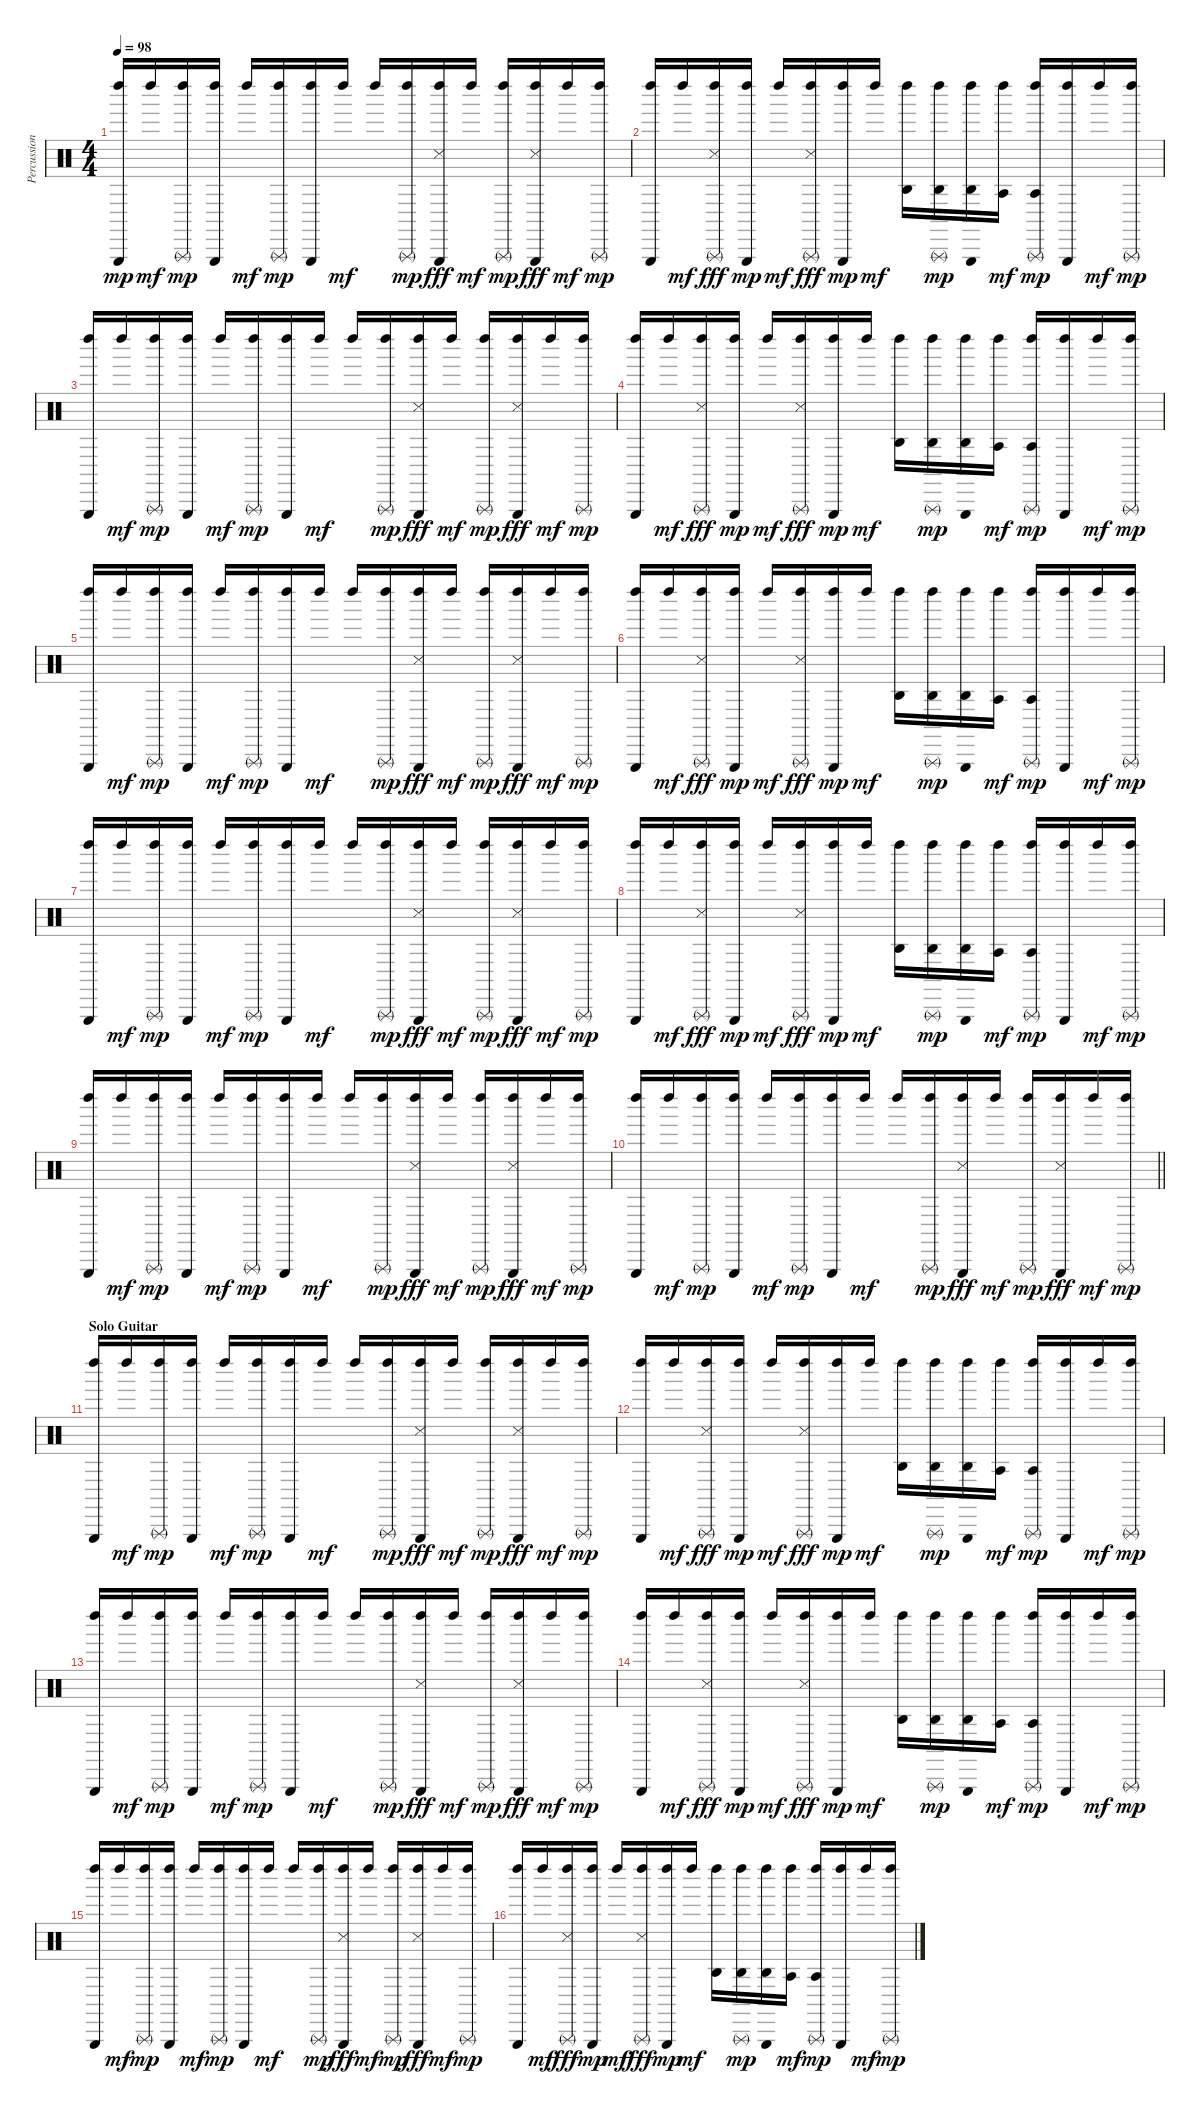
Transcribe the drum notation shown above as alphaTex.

\track ("Percussions (Dr-0)" "Percussion") {instrument percussion}
\staff {score}
\articulation defaults
\ts (4 4)
\tempo 98
\clef neutral
\ks c
("Left Maraca (hit)" "Triangle (hit)").16{dy mp} "Left Maraca (hit)".16{dy mf} ("Left Maraca (hit)" "Triangle (rnute)").16{dy mp} ("Left Maraca (hit)" "Triangle (hit)").16 "Left Maraca (hit)".16{dy mf} ("Left Maraca (hit)" "Triangle (rnute)").16{dy mp} ("Left Maraca (hit)" "Triangle (hit)").16 "Left Maraca (hit)".16{dy mf} "Left Maraca (hit)".16 ("Left Maraca (hit)" "Triangle (rnute)").16{dy mp} ("Left Maraca (hit)" "Triangle (hit)" "Snare (side stick) 3").16{dy fff} "Left Maraca (hit)".16{dy mf} ("Left Maraca (hit)" "Triangle (rnute)").16{dy mp} ("Left Maraca (hit)" "Triangle (hit)" "Snare (side stick) 3").16{dy fff} "Left Maraca (hit)".16{dy mf} ("Left Maraca (hit)" "Triangle (rnute)").16{dy mp} |
("Left Maraca (hit)" "Triangle (hit)").16 "Left Maraca (hit)".16{dy mf} ("Left Maraca (hit)" "Triangle (rnute)" "Snare (side stick) 3").16{dy fff} ("Left Maraca (hit)" "Triangle (hit)").16{dy mp} "Left Maraca (hit)".16{dy mf} ("Left Maraca (hit)" "Triangle (rnute)" "Snare (side stick) 3").16{dy fff} ("Left Maraca (hit)" "Triangle (hit)").16{dy mp} "Left Maraca (hit)".16{dy mf} ("Left Maraca (hit)" "Agogo high (hit)").16 ("Left Maraca (hit)" "Triangle (rnute)" "Agogo high (hit)").16{dy mp} ("Left Maraca (hit)" "Triangle (hit)" "Agogo high (hit)").16 ("Left Maraca (hit)" "Agogo tow (hit)").16{dy mf} ("Left Maraca (hit)" "Triangle (rnute)" "Agogo tow (hit)").16{dy mp} ("Left Maraca (hit)" "Triangle (hit)").16 "Left Maraca (hit)".16{dy mf} ("Left Maraca (hit)" "Triangle (rnute)").16{dy mp} |
("Left Maraca (hit)" "Triangle (hit)").16 "Left Maraca (hit)".16{dy mf} ("Left Maraca (hit)" "Triangle (rnute)").16{dy mp} ("Left Maraca (hit)" "Triangle (hit)").16 "Left Maraca (hit)".16{dy mf} ("Left Maraca (hit)" "Triangle (rnute)").16{dy mp} ("Left Maraca (hit)" "Triangle (hit)").16 "Left Maraca (hit)".16{dy mf} "Left Maraca (hit)".16 ("Left Maraca (hit)" "Triangle (rnute)").16{dy mp} ("Left Maraca (hit)" "Triangle (hit)" "Snare (side stick) 3").16{dy fff} "Left Maraca (hit)".16{dy mf} ("Left Maraca (hit)" "Triangle (rnute)").16{dy mp} ("Left Maraca (hit)" "Triangle (hit)" "Snare (side stick) 3").16{dy fff} "Left Maraca (hit)".16{dy mf} ("Left Maraca (hit)" "Triangle (rnute)").16{dy mp} |
("Left Maraca (hit)" "Triangle (hit)").16 "Left Maraca (hit)".16{dy mf} ("Left Maraca (hit)" "Triangle (rnute)" "Snare (side stick) 3").16{dy fff} ("Left Maraca (hit)" "Triangle (hit)").16{dy mp} "Left Maraca (hit)".16{dy mf} ("Left Maraca (hit)" "Triangle (rnute)" "Snare (side stick) 3").16{dy fff} ("Left Maraca (hit)" "Triangle (hit)").16{dy mp} "Left Maraca (hit)".16{dy mf} ("Left Maraca (hit)" "Agogo high (hit)").16 ("Left Maraca (hit)" "Triangle (rnute)" "Agogo high (hit)").16{dy mp} ("Left Maraca (hit)" "Triangle (hit)" "Agogo high (hit)").16 ("Left Maraca (hit)" "Agogo tow (hit)").16{dy mf} ("Left Maraca (hit)" "Triangle (rnute)" "Agogo tow (hit)").16{dy mp} ("Left Maraca (hit)" "Triangle (hit)").16 "Left Maraca (hit)".16{dy mf} ("Left Maraca (hit)" "Triangle (rnute)").16{dy mp} |
("Left Maraca (hit)" "Triangle (hit)").16 "Left Maraca (hit)".16{dy mf} ("Left Maraca (hit)" "Triangle (rnute)").16{dy mp} ("Left Maraca (hit)" "Triangle (hit)").16 "Left Maraca (hit)".16{dy mf} ("Left Maraca (hit)" "Triangle (rnute)").16{dy mp} ("Left Maraca (hit)" "Triangle (hit)").16 "Left Maraca (hit)".16{dy mf} "Left Maraca (hit)".16 ("Left Maraca (hit)" "Triangle (rnute)").16{dy mp} ("Left Maraca (hit)" "Triangle (hit)" "Snare (side stick) 3").16{dy fff} "Left Maraca (hit)".16{dy mf} ("Left Maraca (hit)" "Triangle (rnute)").16{dy mp} ("Left Maraca (hit)" "Triangle (hit)" "Snare (side stick) 3").16{dy fff} "Left Maraca (hit)".16{dy mf} ("Left Maraca (hit)" "Triangle (rnute)").16{dy mp} |
("Left Maraca (hit)" "Triangle (hit)").16 "Left Maraca (hit)".16{dy mf} ("Left Maraca (hit)" "Triangle (rnute)" "Snare (side stick) 3").16{dy fff} ("Left Maraca (hit)" "Triangle (hit)").16{dy mp} "Left Maraca (hit)".16{dy mf} ("Left Maraca (hit)" "Triangle (rnute)" "Snare (side stick) 3").16{dy fff} ("Left Maraca (hit)" "Triangle (hit)").16{dy mp} "Left Maraca (hit)".16{dy mf} ("Left Maraca (hit)" "Agogo high (hit)").16 ("Left Maraca (hit)" "Triangle (rnute)" "Agogo high (hit)").16{dy mp} ("Left Maraca (hit)" "Triangle (hit)" "Agogo high (hit)").16 ("Left Maraca (hit)" "Agogo tow (hit)").16{dy mf} ("Left Maraca (hit)" "Triangle (rnute)" "Agogo tow (hit)").16{dy mp} ("Left Maraca (hit)" "Triangle (hit)").16 "Left Maraca (hit)".16{dy mf} ("Left Maraca (hit)" "Triangle (rnute)").16{dy mp} |
("Left Maraca (hit)" "Triangle (hit)").16 "Left Maraca (hit)".16{dy mf} ("Left Maraca (hit)" "Triangle (rnute)").16{dy mp} ("Left Maraca (hit)" "Triangle (hit)").16 "Left Maraca (hit)".16{dy mf} ("Left Maraca (hit)" "Triangle (rnute)").16{dy mp} ("Left Maraca (hit)" "Triangle (hit)").16 "Left Maraca (hit)".16{dy mf} "Left Maraca (hit)".16 ("Left Maraca (hit)" "Triangle (rnute)").16{dy mp} ("Left Maraca (hit)" "Triangle (hit)" "Snare (side stick) 3").16{dy fff} "Left Maraca (hit)".16{dy mf} ("Left Maraca (hit)" "Triangle (rnute)").16{dy mp} ("Left Maraca (hit)" "Triangle (hit)" "Snare (side stick) 3").16{dy fff} "Left Maraca (hit)".16{dy mf} ("Left Maraca (hit)" "Triangle (rnute)").16{dy mp} |
("Left Maraca (hit)" "Triangle (hit)").16 "Left Maraca (hit)".16{dy mf} ("Left Maraca (hit)" "Triangle (rnute)" "Snare (side stick) 3").16{dy fff} ("Left Maraca (hit)" "Triangle (hit)").16{dy mp} "Left Maraca (hit)".16{dy mf} ("Left Maraca (hit)" "Triangle (rnute)" "Snare (side stick) 3").16{dy fff} ("Left Maraca (hit)" "Triangle (hit)").16{dy mp} "Left Maraca (hit)".16{dy mf} ("Left Maraca (hit)" "Agogo high (hit)").16 ("Left Maraca (hit)" "Triangle (rnute)" "Agogo high (hit)").16{dy mp} ("Left Maraca (hit)" "Triangle (hit)" "Agogo high (hit)").16 ("Left Maraca (hit)" "Agogo tow (hit)").16{dy mf} ("Left Maraca (hit)" "Triangle (rnute)" "Agogo tow (hit)").16{dy mp} ("Left Maraca (hit)" "Triangle (hit)").16 "Left Maraca (hit)".16{dy mf} ("Left Maraca (hit)" "Triangle (rnute)").16{dy mp} |
("Left Maraca (hit)" "Triangle (hit)").16 "Left Maraca (hit)".16{dy mf} ("Left Maraca (hit)" "Triangle (rnute)").16{dy mp} ("Left Maraca (hit)" "Triangle (hit)").16 "Left Maraca (hit)".16{dy mf} ("Left Maraca (hit)" "Triangle (rnute)").16{dy mp} ("Left Maraca (hit)" "Triangle (hit)").16 "Left Maraca (hit)".16{dy mf} "Left Maraca (hit)".16 ("Left Maraca (hit)" "Triangle (rnute)").16{dy mp} ("Left Maraca (hit)" "Triangle (hit)" "Snare (side stick) 3").16{dy fff} "Left Maraca (hit)".16{dy mf} ("Left Maraca (hit)" "Triangle (rnute)").16{dy mp} ("Left Maraca (hit)" "Triangle (hit)" "Snare (side stick) 3").16{dy fff} "Left Maraca (hit)".16{dy mf} ("Left Maraca (hit)" "Triangle (rnute)").16{dy mp} |
\barLineRight lightlight
("Left Maraca (hit)" "Triangle (hit)").16 "Left Maraca (hit)".16{dy mf} ("Left Maraca (hit)" "Triangle (rnute)").16{dy mp} ("Left Maraca (hit)" "Triangle (hit)").16 "Left Maraca (hit)".16{dy mf} ("Left Maraca (hit)" "Triangle (rnute)").16{dy mp} ("Left Maraca (hit)" "Triangle (hit)").16 "Left Maraca (hit)".16{dy mf} "Left Maraca (hit)".16 ("Left Maraca (hit)" "Triangle (rnute)").16{dy mp} ("Left Maraca (hit)" "Triangle (hit)" "Snare (side stick) 3").16{dy fff} "Left Maraca (hit)".16{dy mf} ("Left Maraca (hit)" "Triangle (rnute)").16{dy mp} ("Left Maraca (hit)" "Triangle (hit)" "Snare (side stick) 3").16{dy fff} "Left Maraca (hit)".16{dy mf} ("Left Maraca (hit)" "Triangle (rnute)").16{dy mp} |
\section ("" "Solo Guitar")
("Left Maraca (hit)" "Triangle (hit)").16 "Left Maraca (hit)".16{dy mf} ("Left Maraca (hit)" "Triangle (rnute)").16{dy mp} ("Left Maraca (hit)" "Triangle (hit)").16 "Left Maraca (hit)".16{dy mf} ("Left Maraca (hit)" "Triangle (rnute)").16{dy mp} ("Left Maraca (hit)" "Triangle (hit)").16 "Left Maraca (hit)".16{dy mf} "Left Maraca (hit)".16 ("Left Maraca (hit)" "Triangle (rnute)").16{dy mp} ("Left Maraca (hit)" "Triangle (hit)" "Snare (side stick) 3").16{dy fff} "Left Maraca (hit)".16{dy mf} ("Left Maraca (hit)" "Triangle (rnute)").16{dy mp} ("Left Maraca (hit)" "Triangle (hit)" "Snare (side stick) 3").16{dy fff} "Left Maraca (hit)".16{dy mf} ("Left Maraca (hit)" "Triangle (rnute)").16{dy mp} |
("Left Maraca (hit)" "Triangle (hit)").16 "Left Maraca (hit)".16{dy mf} ("Left Maraca (hit)" "Triangle (rnute)" "Snare (side stick) 3").16{dy fff} ("Left Maraca (hit)" "Triangle (hit)").16{dy mp} "Left Maraca (hit)".16{dy mf} ("Left Maraca (hit)" "Triangle (rnute)" "Snare (side stick) 3").16{dy fff} ("Left Maraca (hit)" "Triangle (hit)").16{dy mp} "Left Maraca (hit)".16{dy mf} ("Left Maraca (hit)" "Agogo high (hit)").16 ("Left Maraca (hit)" "Triangle (rnute)" "Agogo high (hit)").16{dy mp} ("Left Maraca (hit)" "Triangle (hit)" "Agogo high (hit)").16 ("Left Maraca (hit)" "Agogo tow (hit)").16{dy mf} ("Left Maraca (hit)" "Triangle (rnute)" "Agogo tow (hit)").16{dy mp} ("Left Maraca (hit)" "Triangle (hit)").16 "Left Maraca (hit)".16{dy mf} ("Left Maraca (hit)" "Triangle (rnute)").16{dy mp} |
("Left Maraca (hit)" "Triangle (hit)").16 "Left Maraca (hit)".16{dy mf} ("Left Maraca (hit)" "Triangle (rnute)").16{dy mp} ("Left Maraca (hit)" "Triangle (hit)").16 "Left Maraca (hit)".16{dy mf} ("Left Maraca (hit)" "Triangle (rnute)").16{dy mp} ("Left Maraca (hit)" "Triangle (hit)").16 "Left Maraca (hit)".16{dy mf} "Left Maraca (hit)".16 ("Left Maraca (hit)" "Triangle (rnute)").16{dy mp} ("Left Maraca (hit)" "Triangle (hit)" "Snare (side stick) 3").16{dy fff} "Left Maraca (hit)".16{dy mf} ("Left Maraca (hit)" "Triangle (rnute)").16{dy mp} ("Left Maraca (hit)" "Triangle (hit)" "Snare (side stick) 3").16{dy fff} "Left Maraca (hit)".16{dy mf} ("Left Maraca (hit)" "Triangle (rnute)").16{dy mp} |
("Left Maraca (hit)" "Triangle (hit)").16 "Left Maraca (hit)".16{dy mf} ("Left Maraca (hit)" "Triangle (rnute)" "Snare (side stick) 3").16{dy fff} ("Left Maraca (hit)" "Triangle (hit)").16{dy mp} "Left Maraca (hit)".16{dy mf} ("Left Maraca (hit)" "Triangle (rnute)" "Snare (side stick) 3").16{dy fff} ("Left Maraca (hit)" "Triangle (hit)").16{dy mp} "Left Maraca (hit)".16{dy mf} ("Left Maraca (hit)" "Agogo high (hit)").16 ("Left Maraca (hit)" "Triangle (rnute)" "Agogo high (hit)").16{dy mp} ("Left Maraca (hit)" "Triangle (hit)" "Agogo high (hit)").16 ("Left Maraca (hit)" "Agogo tow (hit)").16{dy mf} ("Left Maraca (hit)" "Triangle (rnute)" "Agogo tow (hit)").16{dy mp} ("Left Maraca (hit)" "Triangle (hit)").16 "Left Maraca (hit)".16{dy mf} ("Left Maraca (hit)" "Triangle (rnute)").16{dy mp} |
("Left Maraca (hit)" "Triangle (hit)").16 "Left Maraca (hit)".16{dy mf} ("Left Maraca (hit)" "Triangle (rnute)").16{dy mp} ("Left Maraca (hit)" "Triangle (hit)").16 "Left Maraca (hit)".16{dy mf} ("Left Maraca (hit)" "Triangle (rnute)").16{dy mp} ("Left Maraca (hit)" "Triangle (hit)").16 "Left Maraca (hit)".16{dy mf} "Left Maraca (hit)".16 ("Left Maraca (hit)" "Triangle (rnute)").16{dy mp} ("Left Maraca (hit)" "Triangle (hit)" "Snare (side stick) 3").16{dy fff} "Left Maraca (hit)".16{dy mf} ("Left Maraca (hit)" "Triangle (rnute)").16{dy mp} ("Left Maraca (hit)" "Triangle (hit)" "Snare (side stick) 3").16{dy fff} "Left Maraca (hit)".16{dy mf} ("Left Maraca (hit)" "Triangle (rnute)").16{dy mp} |
("Left Maraca (hit)" "Triangle (hit)").16 "Left Maraca (hit)".16{dy mf} ("Left Maraca (hit)" "Triangle (rnute)" "Snare (side stick) 3").16{dy fff} ("Left Maraca (hit)" "Triangle (hit)").16{dy mp} "Left Maraca (hit)".16{dy mf} ("Left Maraca (hit)" "Triangle (rnute)" "Snare (side stick) 3").16{dy fff} ("Left Maraca (hit)" "Triangle (hit)").16{dy mp} "Left Maraca (hit)".16{dy mf} ("Left Maraca (hit)" "Agogo high (hit)").16 ("Left Maraca (hit)" "Triangle (rnute)" "Agogo high (hit)").16{dy mp} ("Left Maraca (hit)" "Triangle (hit)" "Agogo high (hit)").16 ("Left Maraca (hit)" "Agogo tow (hit)").16{dy mf} ("Left Maraca (hit)" "Triangle (rnute)" "Agogo tow (hit)").16{dy mp} ("Left Maraca (hit)" "Triangle (hit)").16 "Left Maraca (hit)".16{dy mf} ("Left Maraca (hit)" "Triangle (rnute)").16{dy mp}
